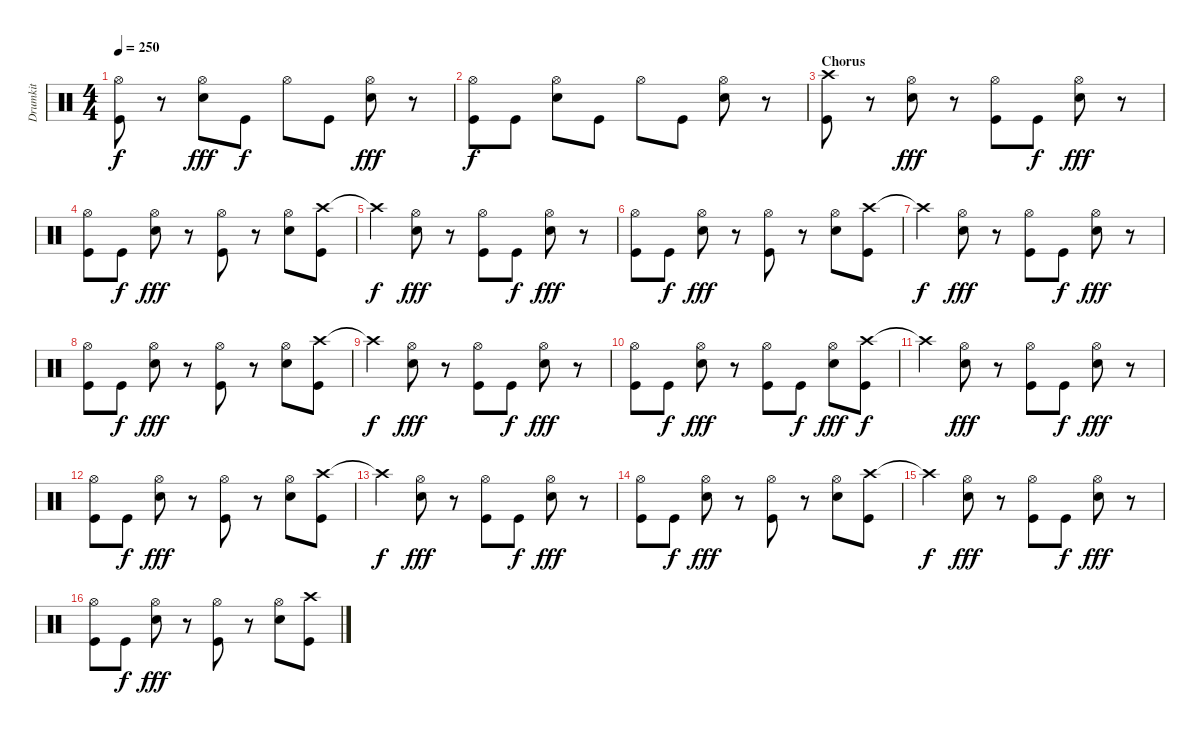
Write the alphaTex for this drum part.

\track ("Drumkit" "Drumkit") {instrument percussion}
\staff {score}
\articulation defaults
\ts (4 4)
\tempo 250
\clef neutral
\ks c
("Hi-Hat (open)" "Kick (hit)").8{dy f} r.8 ("Hi-Hat (open)" "Snare (hit) 2").8{dy fff} "Kick (hit)".8{dy f} "Hi-Hat (open)".8 "Kick (hit)".8 ("Hi-Hat (open)" "Snare (hit) 2").8{dy fff} r.8 |
("Hi-Hat (open)" "Kick (hit)").8{dy f} "Kick (hit)".8 ("Hi-Hat (open)" "Snare (hit) 2").8 "Kick (hit)".8 "Hi-Hat (open)".8 "Kick (hit)".8 ("Hi-Hat (open)" "Snare (hit) 2").8 r.8 |
\section ("" "Chorus")
("Crash high (hit)" "Kick (hit)").8 r.8 ("Hi-Hat (open)" "Snare (hit) 2").8{dy fff} r.8 ("Hi-Hat (open)" "Kick (hit)").8 "Kick (hit)".8{dy f} ("Hi-Hat (open)" "Snare (hit) 2").8{dy fff} r.8 |
("Hi-Hat (open)" "Kick (hit)").8 "Kick (hit)".8{dy f} ("Hi-Hat (open)" "Snare (hit) 2").8{dy fff} r.8 ("Hi-Hat (open)" "Kick (hit)").8 r.8 ("Hi-Hat (open)" "Snare (hit) 2").8 ("Crash high (hit)" "Kick (hit)").8 |
"Crash high (hit)"{t}.4{dy f} ("Hi-Hat (open)" "Snare (hit) 2").8{dy fff} r.8 ("Hi-Hat (open)" "Kick (hit)").8 "Kick (hit)".8{dy f} ("Hi-Hat (open)" "Snare (hit) 2").8{dy fff} r.8 |
("Hi-Hat (open)" "Kick (hit)").8 "Kick (hit)".8{dy f} ("Hi-Hat (open)" "Snare (hit) 2").8{dy fff} r.8 ("Hi-Hat (open)" "Kick (hit)").8 r.8 ("Hi-Hat (open)" "Snare (hit) 2").8 ("Crash high (hit)" "Kick (hit)").8 |
"Crash high (hit)"{t}.4{dy f} ("Hi-Hat (open)" "Snare (hit) 2").8{dy fff} r.8 ("Hi-Hat (open)" "Kick (hit)").8 "Kick (hit)".8{dy f} ("Hi-Hat (open)" "Snare (hit) 2").8{dy fff} r.8 |
("Hi-Hat (open)" "Kick (hit)").8 "Kick (hit)".8{dy f} ("Hi-Hat (open)" "Snare (hit) 2").8{dy fff} r.8 ("Hi-Hat (open)" "Kick (hit)").8 r.8 ("Hi-Hat (open)" "Snare (hit) 2").8 ("Crash high (hit)" "Kick (hit)").8 |
"Crash high (hit)"{t}.4{dy f} ("Hi-Hat (open)" "Snare (hit) 2").8{dy fff} r.8 ("Hi-Hat (open)" "Kick (hit)").8 "Kick (hit)".8{dy f} ("Hi-Hat (open)" "Snare (hit) 2").8{dy fff} r.8 |
("Hi-Hat (open)" "Kick (hit)").8 "Kick (hit)".8{dy f} ("Hi-Hat (open)" "Snare (hit) 2").8{dy fff} r.8 ("Hi-Hat (open)" "Kick (hit)").8 "Kick (hit)".8{dy f} ("Hi-Hat (open)" "Snare (hit) 2").8{dy fff} ("Crash high (hit)" "Kick (hit)").8{dy f} |
"Crash high (hit)"{t}.4 ("Hi-Hat (open)" "Snare (hit) 2").8{dy fff} r.8 ("Hi-Hat (open)" "Kick (hit)").8 "Kick (hit)".8{dy f} ("Hi-Hat (open)" "Snare (hit) 2").8{dy fff} r.8 |
("Hi-Hat (open)" "Kick (hit)").8 "Kick (hit)".8{dy f} ("Hi-Hat (open)" "Snare (hit) 2").8{dy fff} r.8 ("Hi-Hat (open)" "Kick (hit)").8 r.8 ("Hi-Hat (open)" "Snare (hit) 2").8 ("Crash high (hit)" "Kick (hit)").8 |
"Crash high (hit)"{t}.4{dy f} ("Hi-Hat (open)" "Snare (hit) 2").8{dy fff} r.8 ("Hi-Hat (open)" "Kick (hit)").8 "Kick (hit)".8{dy f} ("Hi-Hat (open)" "Snare (hit) 2").8{dy fff} r.8 |
("Hi-Hat (open)" "Kick (hit)").8 "Kick (hit)".8{dy f} ("Hi-Hat (open)" "Snare (hit) 2").8{dy fff} r.8 ("Hi-Hat (open)" "Kick (hit)").8 r.8 ("Hi-Hat (open)" "Snare (hit) 2").8 ("Crash high (hit)" "Kick (hit)").8 |
"Crash high (hit)"{t}.4{dy f} ("Hi-Hat (open)" "Snare (hit) 2").8{dy fff} r.8 ("Hi-Hat (open)" "Kick (hit)").8 "Kick (hit)".8{dy f} ("Hi-Hat (open)" "Snare (hit) 2").8{dy fff} r.8 |
("Hi-Hat (open)" "Kick (hit)").8 "Kick (hit)".8{dy f} ("Hi-Hat (open)" "Snare (hit) 2").8{dy fff} r.8 ("Hi-Hat (open)" "Kick (hit)").8 r.8 ("Hi-Hat (open)" "Snare (hit) 2").8 ("Crash high (hit)" "Kick (hit)").8
